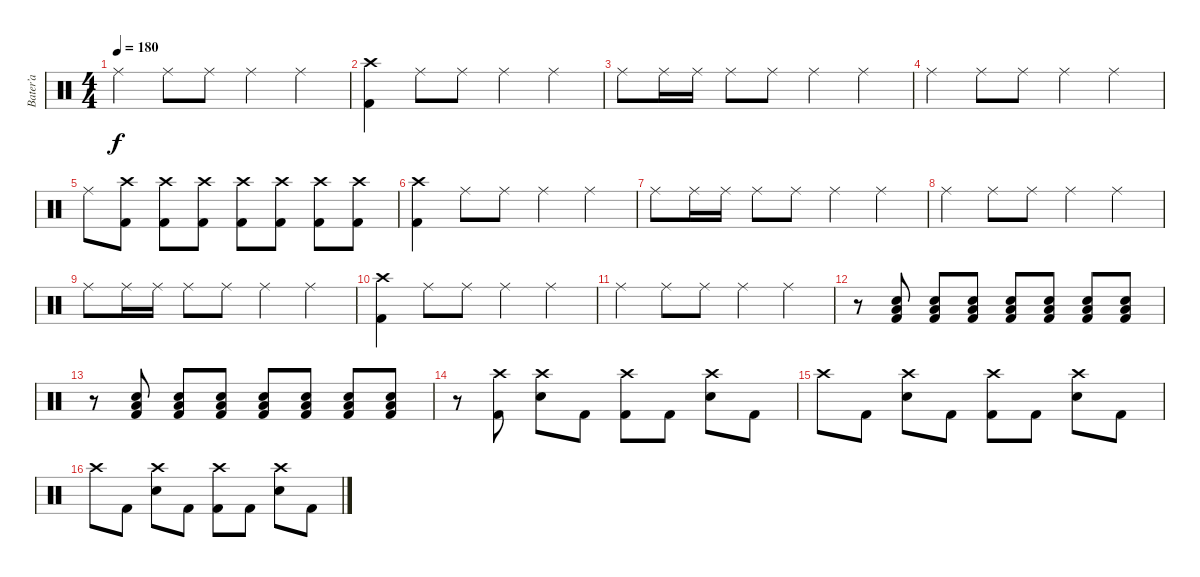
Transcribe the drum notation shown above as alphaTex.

\track ("Bater’a" "Bater’a") {instrument percussion bank 211}
\staff {score}
\articulation defaults
\ts (4 4)
\tempo 180
\clef neutral
\ks c "Ride (middle)".4{dy f} "Ride (middle)".8 "Ride (middle)".8 "Ride (middle)".4 "Ride (middle)".4
|
("Crash high (hit)" "Kick (hit) 2").4 "Ride (middle)".8 "Ride (middle)".8 "Ride (middle)".4 "Ride (middle)".4 |
"Ride (middle)".8 "Ride (middle)".16 "Ride (middle)".16 "Ride (middle)".8 "Ride (middle)".8 "Ride (middle)".4 "Ride (middle)".4 |
"Ride (middle)".4 "Ride (middle)".8 "Ride (middle)".8 "Ride (middle)".4 "Ride (middle)".4 |
"Ride (middle)".8{volume 6} ("Crash high (hit)" "Kick (hit) 2").8{volume 13} ("Crash high (hit)" "Kick (hit) 2").8 ("Crash high (hit)" "Kick (hit) 2").8 ("Crash high (hit)" "Kick (hit) 2").8 ("Crash high (hit)" "Kick (hit) 2").8 ("Crash high (hit)" "Kick (hit) 2").8 ("Crash high (hit)" "Kick (hit) 2").8 |
("Crash high (hit)" "Kick (hit) 2").4 "Ride (middle)".8 "Ride (middle)".8 "Ride (middle)".4 "Ride (middle)".4 |
"Ride (middle)".8 "Ride (middle)".16 "Ride (middle)".16 "Ride (middle)".8 "Ride (middle)".8 "Ride (middle)".4 "Ride (middle)".4 |
"Ride (middle)".4 "Ride (middle)".8 "Ride (middle)".8 "Ride (middle)".4 "Ride (middle)".4 |
"Ride (middle)".8 "Ride (middle)".16 "Ride (middle)".16 "Ride (middle)".8 "Ride (middle)".8 "Ride (middle)".4 "Ride (middle)".4 |
("Crash high (hit)" "Kick (hit) 2").4 "Ride (middle)".8 "Ride (middle)".8 "Ride (middle)".4 "Ride (middle)".4 |
"Ride (middle)".4 "Ride (middle)".8 "Ride (middle)".8 "Ride (middle)".4 "Ride (middle)".4 |
r.8 ("Electric Snare (hit)" "Low Floor Tom (hit)" "Kick (hit) 2").8 ("Electric Snare (hit)" "Low Floor Tom (hit)" "Kick (hit) 2").8 ("Electric Snare (hit)" "Low Floor Tom (hit)" "Kick (hit) 2").8 ("Electric Snare (hit)" "Low Floor Tom (hit)" "Kick (hit) 2").8 ("Electric Snare (hit)" "Low Floor Tom (hit)" "Kick (hit) 2").8 ("Electric Snare (hit)" "Low Floor Tom (hit)" "Kick (hit) 2").8 ("Electric Snare (hit)" "Low Floor Tom (hit)" "Kick (hit) 2").8 |
r.8 ("Electric Snare (hit)" "Low Floor Tom (hit)" "Kick (hit) 2").8 ("Electric Snare (hit)" "Low Floor Tom (hit)" "Kick (hit) 2").8 ("Electric Snare (hit)" "Low Floor Tom (hit)" "Kick (hit) 2").8 ("Electric Snare (hit)" "Low Floor Tom (hit)" "Kick (hit) 2").8 ("Electric Snare (hit)" "Low Floor Tom (hit)" "Kick (hit) 2").8 ("Electric Snare (hit)" "Low Floor Tom (hit)" "Kick (hit) 2").8 ("Electric Snare (hit)" "Low Floor Tom (hit)" "Kick (hit) 2").8 |
r.8 ("Crash high (hit)" "Kick (hit) 2").8 ("Crash high (hit)" "Electric Snare (hit)").8 "Kick (hit) 2".8 ("Crash high (hit)" "Kick (hit) 2").8 "Kick (hit) 2".8 ("Crash high (hit)" "Electric Snare (hit)").8 "Kick (hit) 2".8 |
"Crash high (hit)".8 "Kick (hit) 2".8 ("Crash high (hit)" "Electric Snare (hit)").8 "Kick (hit) 2".8 ("Crash high (hit)" "Kick (hit) 2").8 "Kick (hit) 2".8 ("Crash high (hit)" "Electric Snare (hit)").8 "Kick (hit) 2".8 |
"Crash high (hit)".8 "Kick (hit) 2".8 ("Crash high (hit)" "Electric Snare (hit)").8 "Kick (hit) 2".8 ("Crash high (hit)" "Kick (hit) 2").8 "Kick (hit) 2".8 ("Crash high (hit)" "Electric Snare (hit)").8 "Kick (hit) 2".8
